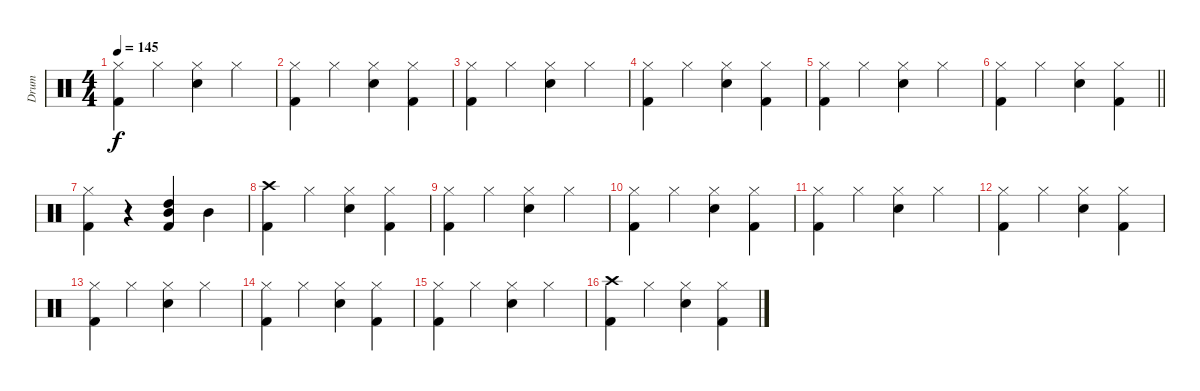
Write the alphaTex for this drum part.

\track ("Drum" "Drum") {instrument percussion}
\staff {score}
\articulation defaults
\ts (4 4)
\tempo 145
\clef neutral
\ks c
("Hi-Hat (closed)" "Kick (hit) 2").4{dy f} "Hi-Hat (closed)".4 ("Hi-Hat (closed)" "Snare (hit) 2").4 "Hi-Hat (closed)".4 |
("Hi-Hat (closed)" "Kick (hit) 2").4 "Hi-Hat (closed)".4 ("Hi-Hat (closed)" "Snare (hit) 2").4 ("Hi-Hat (closed)" "Kick (hit) 2").4 |
("Hi-Hat (closed)" "Kick (hit) 2").4 "Hi-Hat (closed)".4 ("Hi-Hat (closed)" "Snare (hit) 2").4 "Hi-Hat (closed)".4 |
("Hi-Hat (closed)" "Kick (hit) 2").4 "Hi-Hat (closed)".4 ("Hi-Hat (closed)" "Snare (hit) 2").4 ("Hi-Hat (closed)" "Kick (hit) 2").4 |
("Hi-Hat (closed)" "Kick (hit) 2").4 "Hi-Hat (closed)".4 ("Hi-Hat (closed)" "Snare (hit) 2").4 "Hi-Hat (closed)".4 |
\barLineRight lightlight
("Hi-Hat (closed)" "Kick (hit) 2").4 "Hi-Hat (closed)".4 ("Hi-Hat (closed)" "Snare (hit) 2").4 ("Hi-Hat (closed)" "Kick (hit) 2").4 |
("Hi-Hat (closed)" "Kick (hit) 2").4 r.4 ("Mid Tom (hit)" "Kick (hit) 2" "High Tom (hit)").4 "Mid Tom (hit)".4 |
("Crash high (hit)" "Kick (hit) 2").4 "Hi-Hat (closed)".4 ("Hi-Hat (closed)" "Snare (hit) 2").4 ("Hi-Hat (closed)" "Kick (hit) 2").4 |
("Hi-Hat (closed)" "Kick (hit) 2").4 "Hi-Hat (closed)".4 ("Hi-Hat (closed)" "Snare (hit) 2").4 "Hi-Hat (closed)".4 |
("Hi-Hat (closed)" "Kick (hit) 2").4 "Hi-Hat (closed)".4 ("Hi-Hat (closed)" "Snare (hit) 2").4 ("Hi-Hat (closed)" "Kick (hit) 2").4 |
("Hi-Hat (closed)" "Kick (hit) 2").4 "Hi-Hat (closed)".4 ("Hi-Hat (closed)" "Snare (hit) 2").4 "Hi-Hat (closed)".4 |
("Hi-Hat (closed)" "Kick (hit) 2").4 "Hi-Hat (closed)".4 ("Hi-Hat (closed)" "Snare (hit) 2").4 ("Hi-Hat (closed)" "Kick (hit) 2").4 |
("Hi-Hat (closed)" "Kick (hit) 2").4 "Hi-Hat (closed)".4 ("Hi-Hat (closed)" "Snare (hit) 2").4 "Hi-Hat (closed)".4 |
("Hi-Hat (closed)" "Kick (hit) 2").4 "Hi-Hat (closed)".4 ("Hi-Hat (closed)" "Snare (hit) 2").4 ("Hi-Hat (closed)" "Kick (hit) 2").4 |
("Hi-Hat (closed)" "Kick (hit) 2").4 "Hi-Hat (closed)".4 ("Hi-Hat (closed)" "Snare (hit) 2").4 "Hi-Hat (closed)".4 |
("Crash high (hit)" "Kick (hit) 2").4 "Hi-Hat (closed)".4 ("Hi-Hat (closed)" "Snare (hit) 2").4 ("Hi-Hat (closed)" "Kick (hit) 2").4
